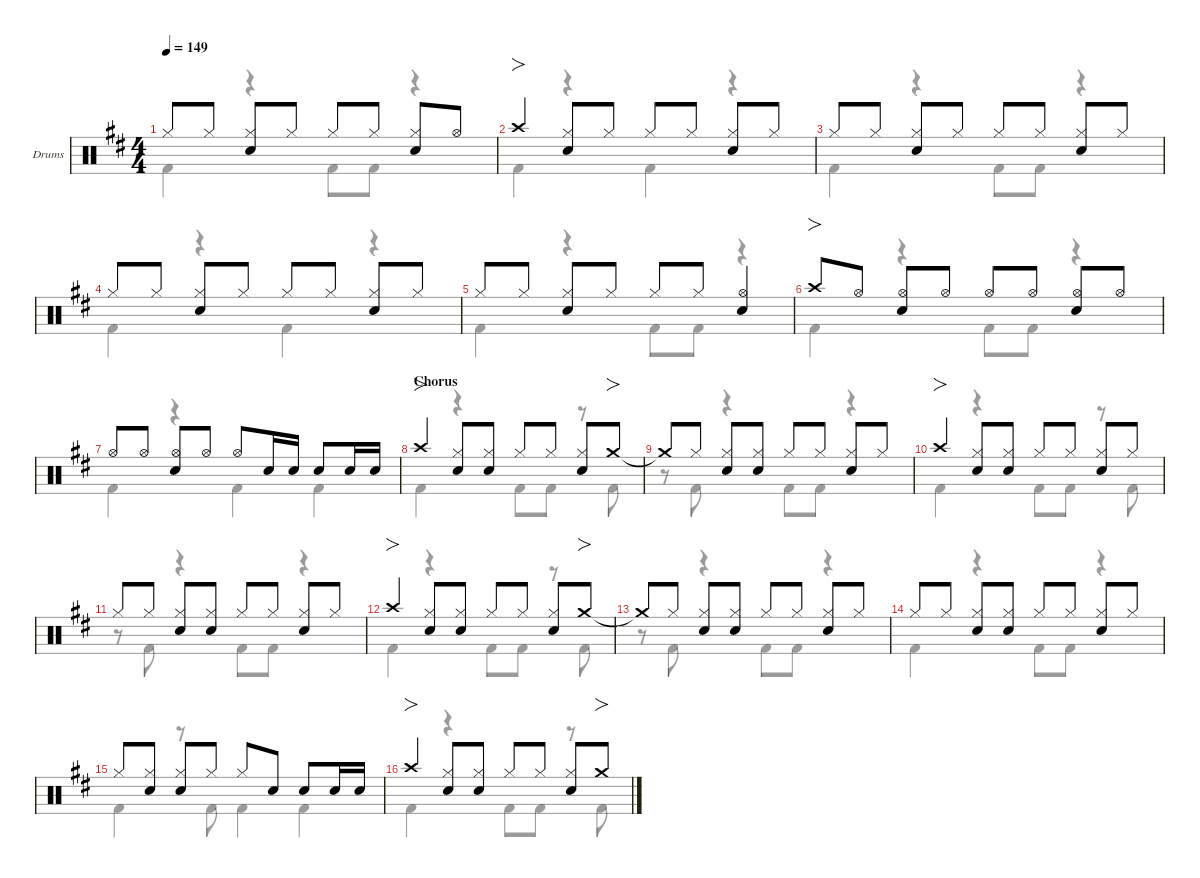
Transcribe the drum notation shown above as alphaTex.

\defaultSystemsLayout 4
\hideDynamics
\bracketExtendMode nobrackets
\firstSystemTrackNameOrientation horizontal
\track ("Drums" "Drums") {defaultSystemsLayout 4 instrument percussion}
\staff {score}
\articulation defaults
\voice
\ts (4 4)
\tempo 149
\clef neutral
\scale
0.244461
\ks d "Hi-Hat (closed)"{acc forcenatural}.8{dy f beam Up} "Hi-Hat (closed)"{acc forcenatural}.8{dy mp beam Up}
("Hi-Hat (closed)"{acc forcenatural} "Snare (hit) 2"{acc forcenatural}).8{dy f beam Up} "Hi-Hat (closed)"{acc forcenatural}.8{dy mp beam Up} "Hi-Hat (closed)"{acc forcenatural}.8{dy f beam Up} "Hi-Hat (closed)"{acc forcenatural}.8{dy mp beam Up} ("Hi-Hat (closed)"{acc forcenatural} "Snare (hit) 2"{acc forcenatural}).8{dy f beam Up} "Hi-Hat (open)"{acc forcenatural}.8{beam Up} |
\scale
0.266618 "Crash high (hit)"{acc forcenatural}.4{fo beam Up} ("Hi-Hat (closed)"{acc forcenatural} "Snare (hit) 2"{acc forcenatural}).8{beam Up} "Hi-Hat (closed)"{acc forcenatural}.8{dy mp beam Up} "Hi-Hat (closed)"{acc forcenatural}.8{dy f beam Up} "Hi-Hat (closed)"{acc forcenatural}.8{dy mp beam Up} ("Hi-Hat (closed)"{acc forcenatural} "Snare (hit) 2"{acc forcenatural}).8{dy f beam Up} "Hi-Hat (closed)"{acc forcenatural}.8{dy mp beam Up} |
\scale
0.244461 "Hi-Hat (closed)"{acc forcenatural}.8{dy f beam Up} "Hi-Hat (closed)"{acc forcenatural}.8{dy mp beam Up} ("Hi-Hat (closed)"{acc forcenatural} "Snare (hit) 2"{acc forcenatural}).8{dy f beam Up} "Hi-Hat (closed)"{acc forcenatural}.8{dy mp beam Up} "Hi-Hat (closed)"{acc forcenatural}.8{dy f beam Up} "Hi-Hat (closed)"{acc forcenatural}.8{dy mp beam Up} ("Hi-Hat (closed)"{acc forcenatural} "Snare (hit) 2"{acc forcenatural}).8{dy f beam Up} "Hi-Hat (closed)"{acc forcenatural}.8{dy mp beam Up} |
\scale
0.24446 "Hi-Hat (closed)"{acc forcenatural}.8{dy f beam Up} "Hi-Hat (closed)"{acc forcenatural}.8{dy mp beam Up} ("Hi-Hat (closed)"{acc forcenatural} "Snare (hit) 2"{acc forcenatural}).8{dy f beam Up} "Hi-Hat (closed)"{acc forcenatural}.8{dy mp beam Up} "Hi-Hat (closed)"{acc forcenatural}.8{dy f beam Up} "Hi-Hat (closed)"{acc forcenatural}.8{dy mp beam Up} ("Hi-Hat (closed)"{acc forcenatural} "Snare (hit) 2"{acc forcenatural}).8{dy f beam Up} "Hi-Hat (closed)"{acc forcenatural}.8{dy mp beam Up} |
\scale
0.244461 "Hi-Hat (closed)"{acc forcenatural}.8{dy f beam Up} "Hi-Hat (closed)"{acc forcenatural}.8{dy mp beam Up} ("Hi-Hat (closed)"{acc forcenatural} "Snare (hit) 2"{acc forcenatural}).8{dy f beam Up} "Hi-Hat (closed)"{acc forcenatural}.8{dy mp beam Up} "Hi-Hat (closed)"{acc forcenatural}.8{dy f beam Up} "Hi-Hat (closed)"{acc forcenatural}.8{dy mp beam Up} ("Hi-Hat (open)"{acc forcenatural} "Snare (hit) 2"{acc forcenatural}).4{dy f beam Up} |
\scale
0.511079 "Crash high (hit)"{acc forcenatural}.8{fo beam Up} "Hi-Hat (open)"{acc forcenatural}.8{dy mf beam Up} ("Hi-Hat (open)"{acc forcenatural} "Snare (hit) 2"{acc forcenatural}).8{dy f beam Up} "Hi-Hat (open)"{acc forcenatural}.8{dy mf beam Up} "Hi-Hat (open)"{acc forcenatural}.8{dy f beam Up} "Hi-Hat (open)"{acc forcenatural}.8{dy mf beam Up} ("Hi-Hat (open)"{acc forcenatural} "Snare (hit) 2"{acc forcenatural}).8{dy f beam Up} "Hi-Hat (open)"{acc forcenatural}.8{dy mf beam Up} |
\scale
0.488921 "Hi-Hat (open)"{acc forcenatural}.8{dy f beam Up} "Hi-Hat (open)"{acc forcenatural}.8{dy mf beam Up} ("Hi-Hat (open)"{acc forcenatural} "Snare (hit) 2"{acc forcenatural}).8{dy f beam Up} "Hi-Hat (open)"{acc forcenatural}.8{dy mf beam Up} "Hi-Hat (open)"{acc forcenatural}.8{dy f beam Up} "Snare (hit) 2"{acc forcenatural}.16{beam Up} "Snare (hit) 2"{acc forcenatural}.16{dy mf beam Up beam split} "Snare (hit) 2"{acc forcenatural}.8{dy f beam Up} "Snare (hit) 2"{acc forcenatural}.16{beam Up} "Snare (hit) 2"{acc forcenatural}.16{dy mf beam Up beam split} |
\section ("" "Chorus")
\scale
0.266618 "Crash high (hit)"{acc forcenatural}.4{fo dy f beam Up} ("Hi-Hat (closed)"{acc forcenatural} "Snare (hit) 2"{acc forcenatural}).8{beam Up} ("Hi-Hat (closed)"{acc forcenatural} "Snare (hit) 2"{acc forcenatural}).8{beam Up} "Hi-Hat (closed)"{acc forcenatural}.8{beam Up} "Hi-Hat (closed)"{acc forcenatural}.8{dy mp beam Up} ("Hi-Hat (closed)"{acc forcenatural} "Snare (hit) 2"{acc forcenatural}).8{dy f beam Up} "Crash medium (hit)"{acc forcenatural}.8{fo beam Up} |
\scale
0.244461 "Crash medium (hit)"{t acc forcenatural}.8{beam Up} "Hi-Hat (closed)"{acc forcenatural}.8{dy mp beam Up} ("Hi-Hat (closed)"{acc forcenatural} "Snare (hit) 2"{acc forcenatural}).8{dy f beam Up} ("Hi-Hat (closed)"{acc forcenatural} "Snare (hit) 2"{acc forcenatural}).8{beam Up} "Hi-Hat (closed)"{acc forcenatural}.8{beam Up} "Hi-Hat (closed)"{acc forcenatural}.8{dy mp beam Up} ("Hi-Hat (closed)"{acc forcenatural} "Snare (hit) 2"{acc forcenatural}).8{dy f beam Up} "Hi-Hat (closed)"{acc forcenatural}.8{dy mp beam Up} |
\scale
0.24446 "Crash high (hit)"{acc forcenatural}.4{fo dy f beam Up} ("Hi-Hat (closed)"{acc forcenatural} "Snare (hit) 2"{acc forcenatural}).8{beam Up} ("Hi-Hat (closed)"{acc forcenatural} "Snare (hit) 2"{acc forcenatural}).8{beam Up} "Hi-Hat (closed)"{acc forcenatural}.8{beam Up} "Hi-Hat (closed)"{acc forcenatural}.8{dy mp beam Up} ("Hi-Hat (closed)"{acc forcenatural} "Snare (hit) 2"{acc forcenatural}).8{dy f beam Up} "Hi-Hat (closed)"{acc forcenatural}.8{dy mp beam Up} |
\scale
0.244461 "Hi-Hat (closed)"{acc forcenatural}.8{dy f beam Up} "Hi-Hat (closed)"{acc forcenatural}.8{dy mp beam Up} ("Hi-Hat (closed)"{acc forcenatural} "Snare (hit) 2"{acc forcenatural}).8{dy f beam Up} ("Hi-Hat (closed)"{acc forcenatural} "Snare (hit) 2"{acc forcenatural}).8{beam Up} "Hi-Hat (closed)"{acc forcenatural}.8{beam Up} "Hi-Hat (closed)"{acc forcenatural}.8{dy mp beam Up} ("Hi-Hat (closed)"{acc forcenatural} "Snare (hit) 2"{acc forcenatural}).8{dy f beam Up} "Hi-Hat (closed)"{acc forcenatural}.8{dy mp beam Up} |
\scale
0.266618 "Crash high (hit)"{acc forcenatural}.4{fo dy f beam Up} ("Hi-Hat (closed)"{acc forcenatural} "Snare (hit) 2"{acc forcenatural}).8{beam Up} ("Hi-Hat (closed)"{acc forcenatural} "Snare (hit) 2"{acc forcenatural}).8{beam Up} "Hi-Hat (closed)"{acc forcenatural}.8{beam Up} "Hi-Hat (closed)"{acc forcenatural}.8{dy mp beam Up} ("Hi-Hat (closed)"{acc forcenatural} "Snare (hit) 2"{acc forcenatural}).8{dy f beam Up} "Crash medium (hit)"{acc forcenatural}.8{fo beam Up} |
\scale
0.244461 "Crash medium (hit)"{t acc forcenatural}.8{beam Up} "Hi-Hat (closed)"{acc forcenatural}.8{dy mp beam Up} ("Hi-Hat (closed)"{acc forcenatural} "Snare (hit) 2"{acc forcenatural}).8{dy f beam Up} ("Hi-Hat (closed)"{acc forcenatural} "Snare (hit) 2"{acc forcenatural}).8{beam Up} "Hi-Hat (closed)"{acc forcenatural}.8{beam Up} "Hi-Hat (closed)"{acc forcenatural}.8{dy mp beam Up} ("Hi-Hat (closed)"{acc forcenatural} "Snare (hit) 2"{acc forcenatural}).8{dy f beam Up} "Hi-Hat (closed)"{acc forcenatural}.8{dy mp beam Up} |
\scale
0.24446 "Hi-Hat (closed)"{acc forcenatural}.8{dy f beam Up} "Hi-Hat (closed)"{acc forcenatural}.8{dy mp beam Up} ("Hi-Hat (closed)"{acc forcenatural} "Snare (hit) 2"{acc forcenatural}).8{dy f beam Up} ("Hi-Hat (closed)"{acc forcenatural} "Snare (hit) 2"{acc forcenatural}).8{beam Up} "Hi-Hat (closed)"{acc forcenatural}.8{beam Up} "Hi-Hat (closed)"{acc forcenatural}.8{dy mp beam Up} ("Hi-Hat (closed)"{acc forcenatural} "Snare (hit) 2"{acc forcenatural}).8{dy f beam Up} "Hi-Hat (closed)"{acc forcenatural}.8{dy mp beam Up} |
\scale
0.244461 "Hi-Hat (closed)"{acc forcenatural}.8{dy f beam Up} ("Hi-Hat (closed)"{acc forcenatural} "Snare (hit) 2"{acc forcenatural}).8{beam Up} ("Hi-Hat (closed)"{acc forcenatural} "Snare (hit) 2"{acc forcenatural}).8{beam Up} "Hi-Hat (closed)"{acc forcenatural}.8{dy mp beam Up} "Hi-Hat (closed)"{acc forcenatural}.8{dy f beam Up} "Snare (hit) 2"{acc forcenatural}.8{beam Up beam split} "Snare (hit) 2"{acc forcenatural}.8{dy mf beam Up} "Snare (hit) 2"{acc forcenatural}.16{dy f beam Up} "Snare (hit) 2"{acc forcenatural}.16{beam Up} |
\scale
0.266618 "Crash high (hit)"{acc forcenatural}.4{fo beam Up} ("Hi-Hat (closed)"{acc forcenatural} "Snare (hit) 2"{acc forcenatural}).8{beam Up} ("Hi-Hat (closed)"{acc forcenatural} "Snare (hit) 2"{acc forcenatural}).8{beam Up} "Hi-Hat (closed)"{acc forcenatural}.8{beam Up} "Hi-Hat (closed)"{acc forcenatural}.8{dy mp beam Up} ("Hi-Hat (closed)"{acc forcenatural} "Snare (hit) 2"{acc forcenatural}).8{dy f beam Up} "Crash medium (hit)"{acc forcenatural}.8{fo beam Up}
\voice
\clef neutral
\ottava regular
\simile none
\scale
0.244461
\ks d "Kick (hit) 2"{acc forcenatural}.4{dy f beam Down}
r.4{beam Down} "Kick (hit) 2"{acc forcenatural}.8{beam Down} "Kick (hit) 2"{acc forcenatural}.8{beam Down} r.4{beam Down} |
\scale
0.266618 "Kick (hit) 2"{acc forcenatural}.4{beam Down} r.4{beam Down} "Kick (hit) 2"{acc forcenatural}.4{beam Down} r.4{beam Down} |
\scale
0.244461 "Kick (hit) 2"{acc forcenatural}.4{beam Down} r.4{beam Down} "Kick (hit) 2"{acc forcenatural}.8{beam Down} "Kick (hit) 2"{acc forcenatural}.8{beam Down} r.4{beam Down} |
\scale
0.24446 "Kick (hit) 2"{acc forcenatural}.4{beam Down} r.4{beam Down} "Kick (hit) 2"{acc forcenatural}.4{beam Down} r.4{beam Down} |
\scale
0.244461 "Kick (hit) 2"{acc forcenatural}.4{beam Down} r.4{beam Down} "Kick (hit) 2"{acc forcenatural}.8{beam Down} "Kick (hit) 2"{acc forcenatural}.8{beam Down} r.4{beam Down} |
\scale
0.511079 "Kick (hit) 2"{acc forcenatural}.4{beam Down} r.4{beam Down} "Kick (hit) 2"{acc forcenatural}.8{beam Down} "Kick (hit) 2"{acc forcenatural}.8{beam Down} r.4{beam Down} |
\scale
0.488921 "Kick (hit) 2"{acc forcenatural}.4{beam Down} r.4{beam Down} "Kick (hit) 2"{acc forcenatural}.4{beam Down} "Kick (hit) 2"{acc forcenatural}.4{beam Down} |
\scale
0.266618 "Kick (hit) 2"{acc forcenatural}.4{beam Down} r.4{beam Down} "Kick (hit) 2"{acc forcenatural}.8{beam Down} "Kick (hit) 2"{acc forcenatural}.8{beam Down} r.8{beam Down} "Kick (hit) 2"{acc forcenatural}.8{beam Down} |
\scale
0.244461 r.8{beam Down} "Kick (hit) 2"{acc forcenatural}.8{beam Down} r.4{beam Down} "Kick (hit) 2"{acc forcenatural}.8{beam Down} "Kick (hit) 2"{acc forcenatural}.8{beam Down} r.4{beam Down} |
\scale
0.24446 "Kick (hit) 2"{acc forcenatural}.4{beam Down} r.4{beam Down} "Kick (hit) 2"{acc forcenatural}.8{beam Down} "Kick (hit) 2"{acc forcenatural}.8{beam Down} r.8{beam Down} "Kick (hit) 2"{acc forcenatural}.8{beam Down} |
\scale
0.244461 r.8{beam Down} "Kick (hit) 2"{acc forcenatural}.8{beam Down} r.4{beam Down} "Kick (hit) 2"{acc forcenatural}.8{beam Down} "Kick (hit) 2"{acc forcenatural}.8{beam Down} r.4{beam Down} |
\scale
0.266618 "Kick (hit) 2"{acc forcenatural}.4{beam Down} r.4{beam Down} "Kick (hit) 2"{acc forcenatural}.8{beam Down} "Kick (hit) 2"{acc forcenatural}.8{beam Down} r.8{beam Down} "Kick (hit) 2"{acc forcenatural}.8{beam Down} |
\scale
0.244461 r.8{beam Down} "Kick (hit) 2"{acc forcenatural}.8{beam Down} r.4{beam Down} "Kick (hit) 2"{acc forcenatural}.8{beam Down} "Kick (hit) 2"{acc forcenatural}.8{beam Down} r.4{beam Down} |
\scale
0.24446 "Kick (hit) 2"{acc forcenatural}.4{beam Down} r.4{beam Down} "Kick (hit) 2"{acc forcenatural}.8{beam Down} "Kick (hit) 2"{acc forcenatural}.8{beam Down} r.4{beam Down} |
\scale
0.244461 "Kick (hit) 2"{acc forcenatural}.4{beam Down} r.8{beam Down} "Kick (hit) 2"{acc forcenatural}.8{beam Down} "Kick (hit) 2"{acc forcenatural}.4{beam Down} "Kick (hit) 2"{acc forcenatural}.4{beam Down} |
\scale
0.266618 "Kick (hit) 2"{acc forcenatural}.4{beam Down} r.4{beam Down} "Kick (hit) 2"{acc forcenatural}.8{beam Down} "Kick (hit) 2"{acc forcenatural}.8{beam Down} r.8{beam Down} "Kick (hit) 2"{acc forcenatural}.8{beam Down}
